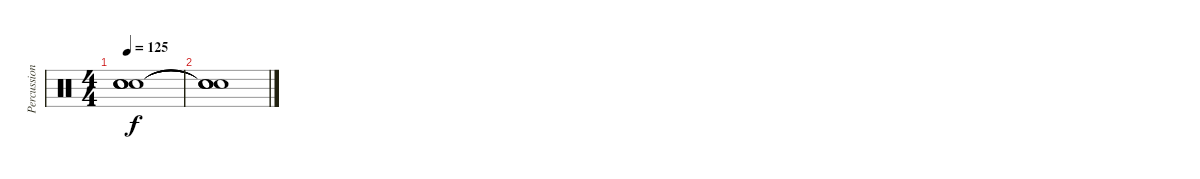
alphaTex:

\track ("Percussion" "Percussion") {solo instrument percussion}
\staff {score}
\articulation defaults
\ts (4 4)
\tempo 125
\clef neutral
\ks c
("Snare (hit)"{t} "Snare (hit)"{t} "Snare (hit)"{t} "Snare (hit)"{t}).1{dy f} |
("Snare (hit)"{t} "Snare (hit)"{t} "Snare (hit)"{t} "Snare (hit)"{t}).1
